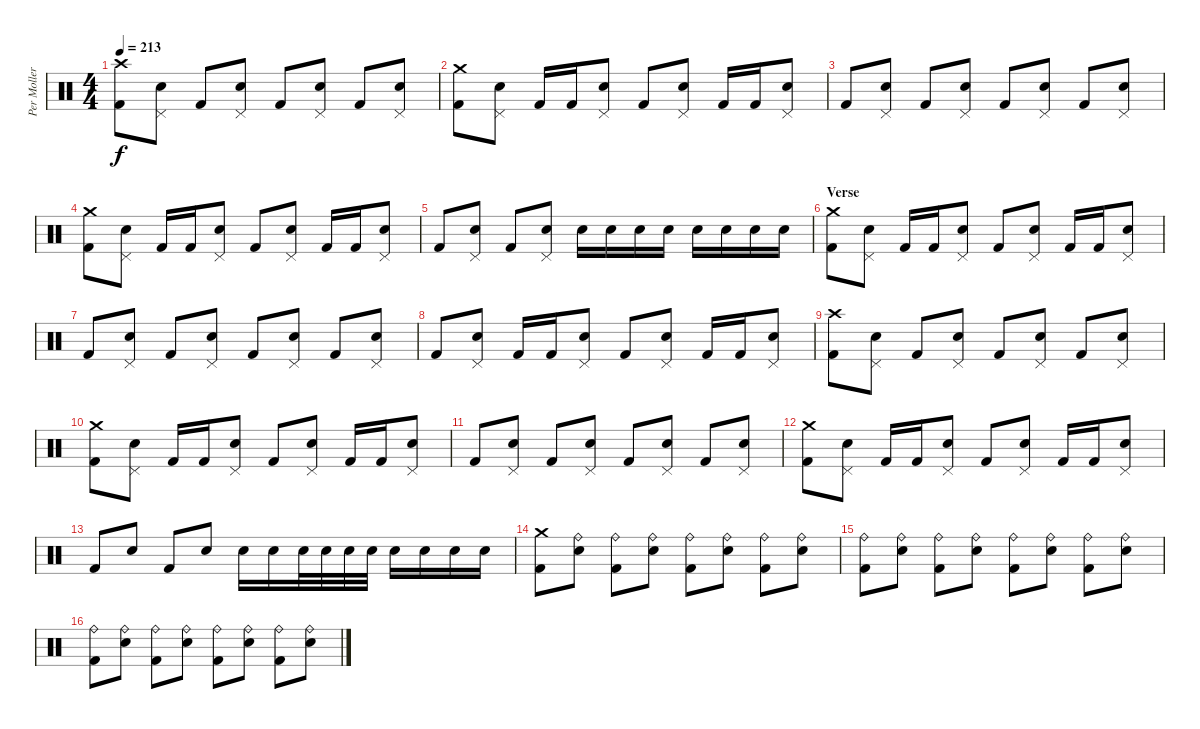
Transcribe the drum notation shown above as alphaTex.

\track ("Per Moller Jensen" "Per Moller") {instrument percussion}
\staff {score}
\articulation defaults
\ts (4 4)
\tempo 213
\clef neutral
\ks c
("Crash high (hit)" "Kick (hit) 2").8{dy f} ("Pedal Hi-Hat (hit)" "Snare (hit) 2").8 "Kick (hit) 2".8 ("Pedal Hi-Hat (hit)" "Snare (hit) 2").8 "Kick (hit) 2".8 ("Pedal Hi-Hat (hit)" "Snare (hit) 2").8 "Kick (hit) 2".8 ("Pedal Hi-Hat (hit)" "Snare (hit) 2").8 |
("Crash medium (hit)" "Kick (hit) 2").8 ("Pedal Hi-Hat (hit)" "Snare (hit) 2").8 "Kick (hit) 2".16 "Kick (hit) 2".16 ("Pedal Hi-Hat (hit)" "Snare (hit) 2").8 "Kick (hit) 2".8 ("Pedal Hi-Hat (hit)" "Snare (hit) 2").8 "Kick (hit) 2".16 "Kick (hit) 2".16 ("Pedal Hi-Hat (hit)" "Snare (hit) 2").8 |
"Kick (hit) 2".8 ("Pedal Hi-Hat (hit)" "Snare (hit) 2").8 "Kick (hit) 2".8 ("Pedal Hi-Hat (hit)" "Snare (hit) 2").8 "Kick (hit) 2".8 ("Pedal Hi-Hat (hit)" "Snare (hit) 2").8 "Kick (hit) 2".8 ("Pedal Hi-Hat (hit)" "Snare (hit) 2").8 |
("Crash medium (hit)" "Kick (hit) 2").8 ("Pedal Hi-Hat (hit)" "Snare (hit) 2").8 "Kick (hit) 2".16 "Kick (hit) 2".16 ("Pedal Hi-Hat (hit)" "Snare (hit) 2").8 "Kick (hit) 2".8 ("Pedal Hi-Hat (hit)" "Snare (hit) 2").8 "Kick (hit) 2".16 "Kick (hit) 2".16 ("Pedal Hi-Hat (hit)" "Snare (hit) 2").8 |
"Kick (hit) 2".8 ("Pedal Hi-Hat (hit)" "Snare (hit) 2").8 "Kick (hit) 2".8 ("Pedal Hi-Hat (hit)" "Snare (hit) 2").8 "Snare (hit) 2".16 "Snare (hit) 2".16 "Snare (hit) 2".16 "Snare (hit) 2".16 "Snare (hit) 2".16 "Snare (hit) 2".16 "Snare (hit) 2".16 "Snare (hit) 2".16 |
\section ("" "Verse")
("Crash medium (hit)" "Kick (hit) 2").8 ("Pedal Hi-Hat (hit)" "Snare (hit) 2").8 "Kick (hit) 2".16 "Kick (hit) 2".16 ("Pedal Hi-Hat (hit)" "Snare (hit) 2").8 "Kick (hit) 2".8 ("Pedal Hi-Hat (hit)" "Snare (hit) 2").8 "Kick (hit) 2".16 "Kick (hit) 2".16 ("Pedal Hi-Hat (hit)" "Snare (hit) 2").8 |
"Kick (hit) 2".8 ("Pedal Hi-Hat (hit)" "Snare (hit) 2").8 "Kick (hit) 2".8 ("Pedal Hi-Hat (hit)" "Snare (hit) 2").8 "Kick (hit) 2".8 ("Pedal Hi-Hat (hit)" "Snare (hit) 2").8 "Kick (hit) 2".8 ("Pedal Hi-Hat (hit)" "Snare (hit) 2").8 |
"Kick (hit) 2".8 ("Pedal Hi-Hat (hit)" "Snare (hit) 2").8 "Kick (hit) 2".16 "Kick (hit) 2".16 ("Pedal Hi-Hat (hit)" "Snare (hit) 2").8 "Kick (hit) 2".8 ("Pedal Hi-Hat (hit)" "Snare (hit) 2").8 "Kick (hit) 2".16 "Kick (hit) 2".16 ("Pedal Hi-Hat (hit)" "Snare (hit) 2").8 |
("Crash high (hit)" "Kick (hit) 2").8 ("Pedal Hi-Hat (hit)" "Snare (hit) 2").8 "Kick (hit) 2".8 ("Pedal Hi-Hat (hit)" "Snare (hit) 2").8 "Kick (hit) 2".8 ("Pedal Hi-Hat (hit)" "Snare (hit) 2").8 "Kick (hit) 2".8 ("Pedal Hi-Hat (hit)" "Snare (hit) 2").8 |
("Crash medium (hit)" "Kick (hit) 2").8 ("Pedal Hi-Hat (hit)" "Snare (hit) 2").8 "Kick (hit) 2".16 "Kick (hit) 2".16 ("Pedal Hi-Hat (hit)" "Snare (hit) 2").8 "Kick (hit) 2".8 ("Pedal Hi-Hat (hit)" "Snare (hit) 2").8 "Kick (hit) 2".16 "Kick (hit) 2".16 ("Pedal Hi-Hat (hit)" "Snare (hit) 2").8 |
"Kick (hit) 2".8 ("Pedal Hi-Hat (hit)" "Snare (hit) 2").8 "Kick (hit) 2".8 ("Pedal Hi-Hat (hit)" "Snare (hit) 2").8 "Kick (hit) 2".8 ("Pedal Hi-Hat (hit)" "Snare (hit) 2").8 "Kick (hit) 2".8 ("Pedal Hi-Hat (hit)" "Snare (hit) 2").8 |
("Crash medium (hit)" "Kick (hit) 2").8 ("Pedal Hi-Hat (hit)" "Snare (hit) 2").8 "Kick (hit) 2".16 "Kick (hit) 2".16 ("Pedal Hi-Hat (hit)" "Snare (hit) 2").8 "Kick (hit) 2".8 ("Pedal Hi-Hat (hit)" "Snare (hit) 2").8 "Kick (hit) 2".16 "Kick (hit) 2".16 ("Pedal Hi-Hat (hit)" "Snare (hit) 2").8 |
"Kick (hit) 2".8 "Snare (hit) 2".8 "Kick (hit) 2".8 "Snare (hit) 2".8 "Snare (hit) 2".16 "Snare (hit) 2".16 "Snare (hit) 2".32 "Snare (hit) 2".32 "Snare (hit) 2".32 "Snare (hit) 2".32 "Snare (hit) 2".16 "Snare (hit) 2".16 "Snare (hit) 2".16 "Snare (hit) 2".16 |
("Crash medium (hit)" "Kick (hit) 2").8 ("Ride (bell)" "Snare (hit) 2").8 ("Ride (bell)" "Kick (hit) 2").8 ("Ride (bell)" "Snare (hit) 2").8 ("Ride (bell)" "Kick (hit) 2").8 ("Ride (bell)" "Snare (hit) 2").8 ("Ride (bell)" "Kick (hit) 2").8 ("Ride (bell)" "Snare (hit) 2").8 |
("Ride (bell)" "Kick (hit) 2").8 ("Ride (bell)" "Snare (hit) 2").8 ("Ride (bell)" "Kick (hit) 2").8 ("Ride (bell)" "Snare (hit) 2").8 ("Ride (bell)" "Kick (hit) 2").8 ("Ride (bell)" "Snare (hit) 2").8 ("Ride (bell)" "Kick (hit) 2").8 ("Ride (bell)" "Snare (hit) 2").8 |
("Ride (bell)" "Kick (hit) 2").8 ("Ride (bell)" "Snare (hit) 2").8 ("Ride (bell)" "Kick (hit) 2").8 ("Ride (bell)" "Snare (hit) 2").8 ("Ride (bell)" "Kick (hit) 2").8 ("Ride (bell)" "Snare (hit) 2").8 ("Ride (bell)" "Kick (hit) 2").8 ("Ride (bell)" "Snare (hit) 2").8
